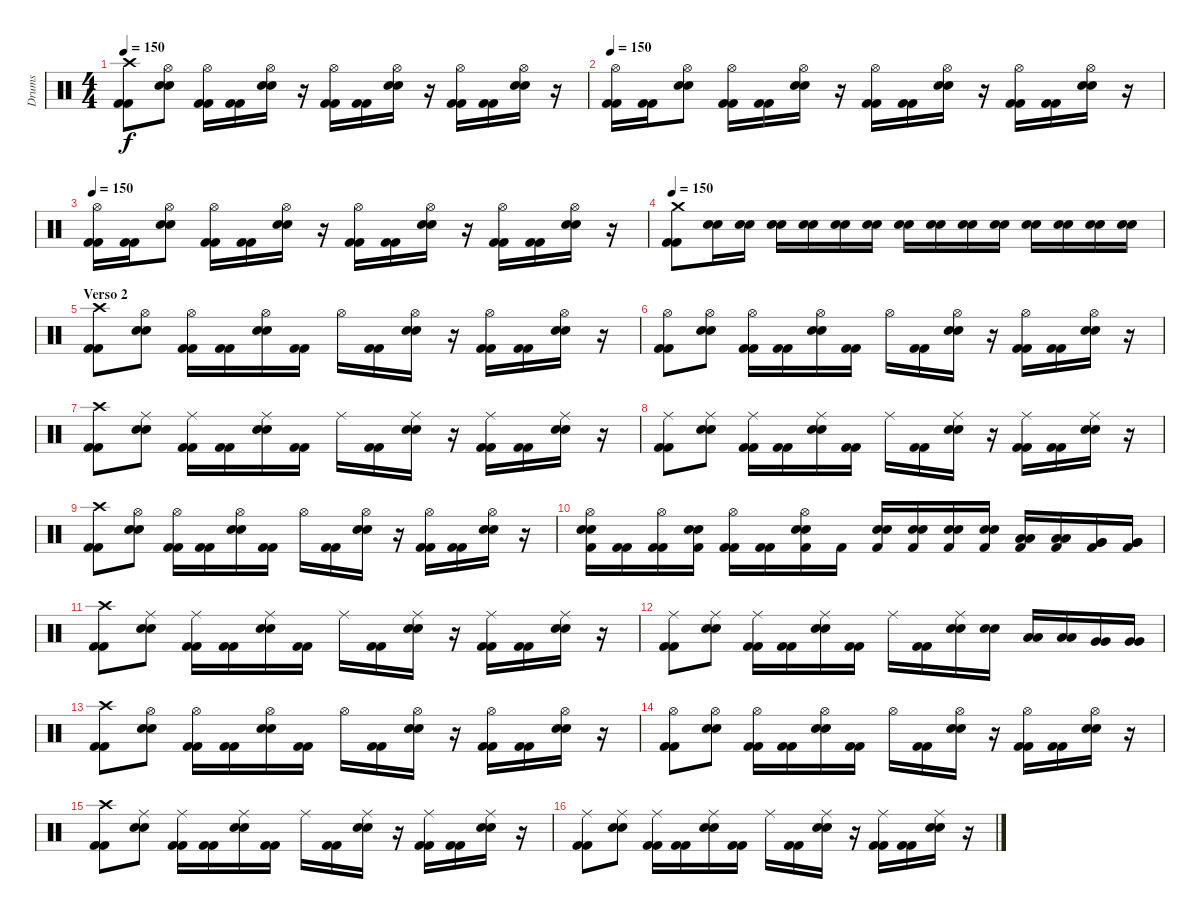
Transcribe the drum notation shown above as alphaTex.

\track ("Drums" "Drums") {instrument percussion}
\staff {score}
\articulation defaults
\ts (4 4)
\tempo 150
\clef neutral
\ks c
("Crash high (hit)" "Kick (hit) 2" "Kick (hit) 2").8{dy f} ("Hi-Hat (open)" "Snare (hit) 2" "Snare (hit) 2").8 ("Hi-Hat (open)" "Kick (hit) 2" "Kick (hit) 2").16 ("Kick (hit) 2" "Kick (hit) 2").16 ("Hi-Hat (open)" "Snare (hit) 2" "Snare (hit) 2").16 r.16 ("Hi-Hat (open)" "Kick (hit) 2" "Kick (hit) 2").16 ("Kick (hit) 2" "Kick (hit) 2").16 ("Hi-Hat (open)" "Snare (hit) 2" "Snare (hit) 2").16 r.16 ("Hi-Hat (open)" "Kick (hit) 2" "Kick (hit) 2").16 ("Kick (hit) 2" "Kick (hit) 2").16 ("Hi-Hat (open)" "Snare (hit) 2" "Snare (hit) 2").16 r.16 |
\tempo 150
("Hi-Hat (open)" "Kick (hit) 2" "Kick (hit) 2").16 ("Kick (hit) 2" "Kick (hit) 2").16 ("Hi-Hat (open)" "Snare (hit) 2" "Snare (hit) 2").8 ("Hi-Hat (open)" "Kick (hit) 2" "Kick (hit) 2").16 ("Kick (hit) 2" "Kick (hit) 2").16 ("Hi-Hat (open)" "Snare (hit) 2" "Snare (hit) 2").16 r.16 ("Hi-Hat (open)" "Kick (hit) 2" "Kick (hit) 2").16 ("Kick (hit) 2" "Kick (hit) 2").16 ("Hi-Hat (open)" "Snare (hit) 2" "Snare (hit) 2").16 r.16 ("Hi-Hat (open)" "Kick (hit) 2" "Kick (hit) 2").16 ("Kick (hit) 2" "Kick (hit) 2").16 ("Hi-Hat (open)" "Snare (hit) 2" "Snare (hit) 2").16 r.16 |
\tempo 150
("Hi-Hat (open)" "Kick (hit) 2" "Kick (hit) 2").16 ("Kick (hit) 2" "Kick (hit) 2").16 ("Hi-Hat (open)" "Snare (hit) 2" "Snare (hit) 2").8 ("Hi-Hat (open)" "Kick (hit) 2" "Kick (hit) 2").16 ("Kick (hit) 2" "Kick (hit) 2").16 ("Hi-Hat (open)" "Snare (hit) 2" "Snare (hit) 2").16 r.16 ("Hi-Hat (open)" "Kick (hit) 2" "Kick (hit) 2").16 ("Kick (hit) 2" "Kick (hit) 2").16 ("Hi-Hat (open)" "Snare (hit) 2" "Snare (hit) 2").16 r.16 ("Hi-Hat (open)" "Kick (hit) 2" "Kick (hit) 2").16 ("Kick (hit) 2" "Kick (hit) 2").16 ("Hi-Hat (open)" "Snare (hit) 2" "Snare (hit) 2").16 r.16 |
\tempo 150
("Crash medium (hit)" "Kick (hit) 2" "Kick (hit) 2").8 ("Snare (hit) 2" "Snare (hit) 2").16 ("Snare (hit) 2" "Snare (hit) 2").16 ("Snare (hit) 2" "Snare (hit) 2").16 ("Snare (hit) 2" "Snare (hit) 2").16 ("Snare (hit) 2" "Snare (hit) 2").16 ("Snare (hit) 2" "Snare (hit) 2").16 ("Snare (hit) 2" "Snare (hit) 2").16 ("Snare (hit) 2" "Snare (hit) 2").16 ("Snare (hit) 2" "Snare (hit) 2").16 ("Snare (hit) 2" "Snare (hit) 2").16 ("Snare (hit) 2" "Snare (hit) 2").16 ("Snare (hit) 2" "Snare (hit) 2").16 ("Snare (hit) 2" "Snare (hit) 2").16 ("Snare (hit) 2" "Snare (hit) 2").16 |
\section ("" "Verso 2")
("Crash high (hit)" "Kick (hit) 2" "Kick (hit) 2").8 ("Hi-Hat (open)" "Snare (hit) 2" "Snare (hit) 2").8 ("Hi-Hat (open)" "Kick (hit) 2" "Kick (hit) 2").16 ("Kick (hit) 2" "Kick (hit) 2").16 ("Hi-Hat (open)" "Snare (hit) 2" "Snare (hit) 2").16 ("Kick (hit) 2" "Kick (hit) 2").16 "Hi-Hat (open)".16 ("Kick (hit) 2" "Kick (hit) 2").16 ("Hi-Hat (open)" "Snare (hit) 2" "Snare (hit) 2").16 r.16 ("Hi-Hat (open)" "Kick (hit) 2" "Kick (hit) 2").16 ("Kick (hit) 2" "Kick (hit) 2").16 ("Hi-Hat (open)" "Snare (hit) 2" "Snare (hit) 2").16 r.16 |
("Hi-Hat (open)" "Kick (hit) 2" "Kick (hit) 2").8 ("Hi-Hat (open)" "Snare (hit) 2" "Snare (hit) 2").8 ("Hi-Hat (open)" "Kick (hit) 2" "Kick (hit) 2").16 ("Kick (hit) 2" "Kick (hit) 2").16 ("Hi-Hat (open)" "Snare (hit) 2" "Snare (hit) 2").16 ("Kick (hit) 2" "Kick (hit) 2").16 "Hi-Hat (open)".16 ("Kick (hit) 2" "Kick (hit) 2").16 ("Hi-Hat (open)" "Snare (hit) 2" "Snare (hit) 2").16 r.16 ("Hi-Hat (open)" "Kick (hit) 2" "Kick (hit) 2").16 ("Kick (hit) 2" "Kick (hit) 2").16 ("Hi-Hat (open)" "Snare (hit) 2" "Snare (hit) 2").16 r.16 |
("Crash high (hit)" "Kick (hit) 2" "Kick (hit) 2").8 ("Ride (middle)" "Snare (hit) 2" "Snare (hit) 2").8 ("Ride (middle)" "Kick (hit) 2" "Kick (hit) 2").16 ("Kick (hit) 2" "Kick (hit) 2").16 ("Ride (middle)" "Snare (hit) 2" "Snare (hit) 2").16 ("Kick (hit) 2" "Kick (hit) 2").16 "Ride (middle)".16 ("Kick (hit) 2" "Kick (hit) 2").16 ("Ride (middle)" "Snare (hit) 2" "Snare (hit) 2").16 r.16 ("Ride (middle)" "Kick (hit) 2" "Kick (hit) 2").16 ("Kick (hit) 2" "Kick (hit) 2").16 ("Ride (middle)" "Snare (hit) 2" "Snare (hit) 2").16 r.16 |
("Ride (middle)" "Kick (hit) 2" "Kick (hit) 2").8 ("Ride (middle)" "Snare (hit) 2" "Snare (hit) 2").8 ("Ride (middle)" "Kick (hit) 2" "Kick (hit) 2").16 ("Kick (hit) 2" "Kick (hit) 2").16 ("Ride (middle)" "Snare (hit) 2" "Snare (hit) 2").16 ("Kick (hit) 2" "Kick (hit) 2").16 "Ride (middle)".16 ("Kick (hit) 2" "Kick (hit) 2").16 ("Ride (middle)" "Snare (hit) 2" "Snare (hit) 2").16 r.16 ("Ride (middle)" "Kick (hit) 2" "Kick (hit) 2").16 ("Kick (hit) 2" "Kick (hit) 2").16 ("Ride (middle)" "Snare (hit) 2" "Snare (hit) 2").16 r.16 |
("Crash high (hit)" "Kick (hit) 2" "Kick (hit) 2").8 ("Hi-Hat (open)" "Snare (hit) 2" "Snare (hit) 2").8 ("Hi-Hat (open)" "Kick (hit) 2" "Kick (hit) 2").16 ("Kick (hit) 2" "Kick (hit) 2").16 ("Hi-Hat (open)" "Snare (hit) 2" "Snare (hit) 2").16 ("Kick (hit) 2" "Kick (hit) 2").16 "Hi-Hat (open)".16 ("Kick (hit) 2" "Kick (hit) 2").16 ("Hi-Hat (open)" "Snare (hit) 2" "Snare (hit) 2").16 r.16 ("Hi-Hat (open)" "Kick (hit) 2" "Kick (hit) 2").16 ("Kick (hit) 2" "Kick (hit) 2").16 ("Hi-Hat (open)" "Snare (hit) 2" "Snare (hit) 2").16 r.16 |
("Hi-Hat (open)" "Snare (hit) 2" "Snare (hit) 2" "Kick (hit) 2").16 ("Kick (hit) 2" "Kick (hit) 2").16 ("Hi-Hat (open)" "Kick (hit) 2" "Kick (hit) 2").16 ("Snare (hit) 2" "Snare (hit) 2" "Kick (hit) 2").16 ("Hi-Hat (open)" "Kick (hit) 2" "Kick (hit) 2").16 ("Kick (hit) 2" "Kick (hit) 2").16 ("Hi-Hat (open)" "Snare (hit) 2" "Snare (hit) 2" "Kick (hit) 2").16 "Kick (hit) 2".16 ("Snare (hit) 2" "Snare (hit) 2" "Kick (hit) 2").16 ("Snare (hit) 2" "Snare (hit) 2" "Kick (hit) 2").16 ("Snare (hit) 2" "Snare (hit) 2" "Kick (hit) 2").16 ("Snare (hit) 2" "Snare (hit) 2" "Kick (hit) 2").16 ("Low Tom (hit)" "Low Tom (hit)" "Kick (hit) 2").16 ("Low Tom (hit)" "Low Tom (hit)" "Kick (hit) 2").16 ("Very Low Tom (hit)" "Very Low Tom (hit)" "Kick (hit) 2").16 ("Very Low Tom (hit)" "Very Low Tom (hit)" "Kick (hit) 2").16 |
("Crash high (hit)" "Kick (hit) 2" "Kick (hit) 2").8 ("Ride (middle)" "Snare (hit) 2" "Snare (hit) 2").8 ("Ride (middle)" "Kick (hit) 2" "Kick (hit) 2").16 ("Kick (hit) 2" "Kick (hit) 2").16 ("Ride (middle)" "Snare (hit) 2" "Snare (hit) 2").16 ("Kick (hit) 2" "Kick (hit) 2").16 "Ride (middle)".16 ("Kick (hit) 2" "Kick (hit) 2").16 ("Ride (middle)" "Snare (hit) 2" "Snare (hit) 2").16 r.16 ("Ride (middle)" "Kick (hit) 2" "Kick (hit) 2").16 ("Kick (hit) 2" "Kick (hit) 2").16 ("Ride (middle)" "Snare (hit) 2" "Snare (hit) 2").16 r.16 |
("Ride (middle)" "Kick (hit) 2" "Kick (hit) 2").8 ("Ride (middle)" "Snare (hit) 2" "Snare (hit) 2").8 ("Ride (middle)" "Kick (hit) 2" "Kick (hit) 2").16 ("Kick (hit) 2" "Kick (hit) 2").16 ("Ride (middle)" "Snare (hit) 2" "Snare (hit) 2").16 ("Kick (hit) 2" "Kick (hit) 2").16 "Ride (middle)".16 ("Kick (hit) 2" "Kick (hit) 2").16 ("Ride (middle)" "Snare (hit) 2" "Snare (hit) 2").16 ("Snare (hit) 2" "Snare (hit) 2").16 ("Low Tom (hit)" "Low Tom (hit)").16 ("Low Tom (hit)" "Low Tom (hit)").16 ("Very Low Tom (hit)" "Very Low Tom (hit)").16 ("Very Low Tom (hit)" "Very Low Tom (hit)").16 |
("Crash high (hit)" "Kick (hit) 2" "Kick (hit) 2").8 ("Hi-Hat (open)" "Snare (hit) 2" "Snare (hit) 2").8 ("Hi-Hat (open)" "Kick (hit) 2" "Kick (hit) 2").16 ("Kick (hit) 2" "Kick (hit) 2").16 ("Hi-Hat (open)" "Snare (hit) 2" "Snare (hit) 2").16 ("Kick (hit) 2" "Kick (hit) 2").16 "Hi-Hat (open)".16 ("Kick (hit) 2" "Kick (hit) 2").16 ("Hi-Hat (open)" "Snare (hit) 2" "Snare (hit) 2").16 r.16 ("Hi-Hat (open)" "Kick (hit) 2" "Kick (hit) 2").16 ("Kick (hit) 2" "Kick (hit) 2").16 ("Hi-Hat (open)" "Snare (hit) 2" "Snare (hit) 2").16 r.16 |
("Hi-Hat (open)" "Kick (hit) 2" "Kick (hit) 2").8 ("Hi-Hat (open)" "Snare (hit) 2" "Snare (hit) 2").8 ("Hi-Hat (open)" "Kick (hit) 2" "Kick (hit) 2").16 ("Kick (hit) 2" "Kick (hit) 2").16 ("Hi-Hat (open)" "Snare (hit) 2" "Snare (hit) 2").16 ("Kick (hit) 2" "Kick (hit) 2").16 "Hi-Hat (open)".16 ("Kick (hit) 2" "Kick (hit) 2").16 ("Hi-Hat (open)" "Snare (hit) 2" "Snare (hit) 2").16 r.16 ("Hi-Hat (open)" "Kick (hit) 2" "Kick (hit) 2").16 ("Kick (hit) 2" "Kick (hit) 2").16 ("Hi-Hat (open)" "Snare (hit) 2" "Snare (hit) 2").16 r.16 |
("Crash high (hit)" "Kick (hit) 2" "Kick (hit) 2").8 ("Ride (middle)" "Snare (hit) 2" "Snare (hit) 2").8 ("Ride (middle)" "Kick (hit) 2" "Kick (hit) 2").16 ("Kick (hit) 2" "Kick (hit) 2").16 ("Ride (middle)" "Snare (hit) 2" "Snare (hit) 2").16 ("Kick (hit) 2" "Kick (hit) 2").16 "Ride (middle)".16 ("Kick (hit) 2" "Kick (hit) 2").16 ("Ride (middle)" "Snare (hit) 2" "Snare (hit) 2").16 r.16 ("Ride (middle)" "Kick (hit) 2" "Kick (hit) 2").16 ("Kick (hit) 2" "Kick (hit) 2").16 ("Ride (middle)" "Snare (hit) 2" "Snare (hit) 2").16 r.16 |
("Ride (middle)" "Kick (hit) 2" "Kick (hit) 2").8 ("Ride (middle)" "Snare (hit) 2" "Snare (hit) 2").8 ("Ride (middle)" "Kick (hit) 2" "Kick (hit) 2").16 ("Kick (hit) 2" "Kick (hit) 2").16 ("Ride (middle)" "Snare (hit) 2" "Snare (hit) 2").16 ("Kick (hit) 2" "Kick (hit) 2").16 "Ride (middle)".16 ("Kick (hit) 2" "Kick (hit) 2").16 ("Ride (middle)" "Snare (hit) 2" "Snare (hit) 2").16 r.16 ("Ride (middle)" "Kick (hit) 2" "Kick (hit) 2").16 ("Kick (hit) 2" "Kick (hit) 2").16 ("Ride (middle)" "Snare (hit) 2" "Snare (hit) 2").16 r.16
